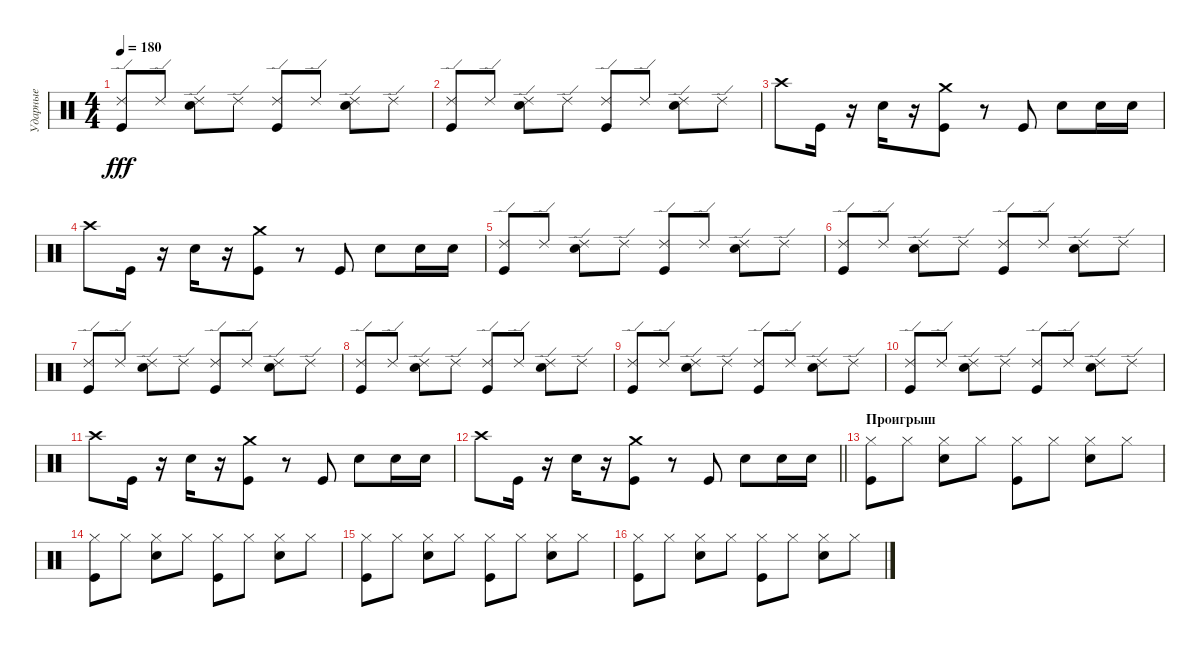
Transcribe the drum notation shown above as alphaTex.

\track ("Ударные" "Ударные") {instrument percussion}
\staff {score}
\articulation defaults
\ts (4 4)
\tempo 180
\clef neutral
\ks c
("Ride (edge) 2" "Kick (hit)").8{dy fff} "Ride (edge) 2".8 ("Ride (edge) 2" "Electric Snare (hit)").8 "Ride (edge) 2".8 ("Ride (edge) 2" "Kick (hit)").8 "Ride (edge) 2".8 ("Ride (edge) 2" "Electric Snare (hit)").8 "Ride (edge) 2".8 |
("Ride (edge) 2" "Kick (hit)").8 "Ride (edge) 2".8 ("Ride (edge) 2" "Electric Snare (hit)").8 "Ride (edge) 2".8 ("Ride (edge) 2" "Kick (hit)").8 "Ride (edge) 2".8 ("Ride (edge) 2" "Electric Snare (hit)").8 "Ride (edge) 2".8 |
"Crash high (hit)".8 "Kick (hit)".16 r.16 "Electric Snare (hit)".16 r.16 ("Crash medium (hit)" "Kick (hit)").8 r.8 "Kick (hit)".8 "Electric Snare (hit)".8 "Electric Snare (hit)".16 "Electric Snare (hit)".16 |
"Crash high (hit)".8 "Kick (hit)".16 r.16 "Electric Snare (hit)".16 r.16 ("Crash medium (hit)" "Kick (hit)").8 r.8 "Kick (hit)".8 "Electric Snare (hit)".8 "Electric Snare (hit)".16 "Electric Snare (hit)".16 |
("Ride (edge) 2" "Kick (hit)").8 "Ride (edge) 2".8 ("Ride (edge) 2" "Electric Snare (hit)").8 "Ride (edge) 2".8 ("Ride (edge) 2" "Kick (hit)").8 "Ride (edge) 2".8 ("Ride (edge) 2" "Electric Snare (hit)").8 "Ride (edge) 2".8 |
("Ride (edge) 2" "Kick (hit)").8 "Ride (edge) 2".8 ("Ride (edge) 2" "Electric Snare (hit)").8 "Ride (edge) 2".8 ("Ride (edge) 2" "Kick (hit)").8 "Ride (edge) 2".8 ("Ride (edge) 2" "Electric Snare (hit)").8 "Ride (edge) 2".8 |
("Ride (edge) 2" "Kick (hit)").8 "Ride (edge) 2".8 ("Ride (edge) 2" "Electric Snare (hit)").8 "Ride (edge) 2".8 ("Ride (edge) 2" "Kick (hit)").8 "Ride (edge) 2".8 ("Ride (edge) 2" "Electric Snare (hit)").8 "Ride (edge) 2".8 |
("Ride (edge) 2" "Kick (hit)").8 "Ride (edge) 2".8 ("Ride (edge) 2" "Electric Snare (hit)").8 "Ride (edge) 2".8 ("Ride (edge) 2" "Kick (hit)").8 "Ride (edge) 2".8 ("Ride (edge) 2" "Electric Snare (hit)").8 "Ride (edge) 2".8 |
("Ride (edge) 2" "Kick (hit)").8 "Ride (edge) 2".8 ("Ride (edge) 2" "Electric Snare (hit)").8 "Ride (edge) 2".8 ("Ride (edge) 2" "Kick (hit)").8 "Ride (edge) 2".8 ("Ride (edge) 2" "Electric Snare (hit)").8 "Ride (edge) 2".8 |
("Ride (edge) 2" "Kick (hit)").8 "Ride (edge) 2".8 ("Ride (edge) 2" "Electric Snare (hit)").8 "Ride (edge) 2".8 ("Ride (edge) 2" "Kick (hit)").8 "Ride (edge) 2".8 ("Ride (edge) 2" "Electric Snare (hit)").8 "Ride (edge) 2".8 |
"Crash high (hit)".8 "Kick (hit)".16 r.16 "Electric Snare (hit)".16 r.16 ("Crash medium (hit)" "Kick (hit)").8 r.8 "Kick (hit)".8 "Electric Snare (hit)".8 "Electric Snare (hit)".16 "Electric Snare (hit)".16 |
\barLineRight lightlight "Crash high (hit)".8 "Kick (hit)".16
r.16 "Electric Snare (hit)".16 r.16 ("Crash medium (hit)" "Kick (hit)").8 r.8 "Kick (hit)".8 "Electric Snare (hit)".8 "Electric Snare (hit)".16 "Electric Snare (hit)".16 |
\section ("" "Проигрыш")
("Hi-Hat (closed)" "Kick (hit)").8 "Hi-Hat (closed)".8 ("Hi-Hat (closed)" "Electric Snare (hit)").8 "Hi-Hat (closed)".8 ("Hi-Hat (closed)" "Kick (hit)").8 "Hi-Hat (closed)".8 ("Hi-Hat (closed)" "Electric Snare (hit)").8 "Hi-Hat (closed)".8 |
("Hi-Hat (closed)" "Kick (hit)").8 "Hi-Hat (closed)".8 ("Hi-Hat (closed)" "Electric Snare (hit)").8 "Hi-Hat (closed)".8 ("Hi-Hat (closed)" "Kick (hit)").8 "Hi-Hat (closed)".8 ("Hi-Hat (closed)" "Electric Snare (hit)").8 "Hi-Hat (closed)".8 |
("Hi-Hat (closed)" "Kick (hit)").8 "Hi-Hat (closed)".8 ("Hi-Hat (closed)" "Electric Snare (hit)").8 "Hi-Hat (closed)".8 ("Hi-Hat (closed)" "Kick (hit)").8 "Hi-Hat (closed)".8 ("Hi-Hat (closed)" "Electric Snare (hit)").8 "Hi-Hat (closed)".8 |
("Hi-Hat (closed)" "Kick (hit)").8 "Hi-Hat (closed)".8 ("Hi-Hat (closed)" "Electric Snare (hit)").8 "Hi-Hat (closed)".8 ("Hi-Hat (closed)" "Kick (hit)").8 "Hi-Hat (closed)".8 ("Hi-Hat (closed)" "Electric Snare (hit)").8 "Hi-Hat (closed)".8
